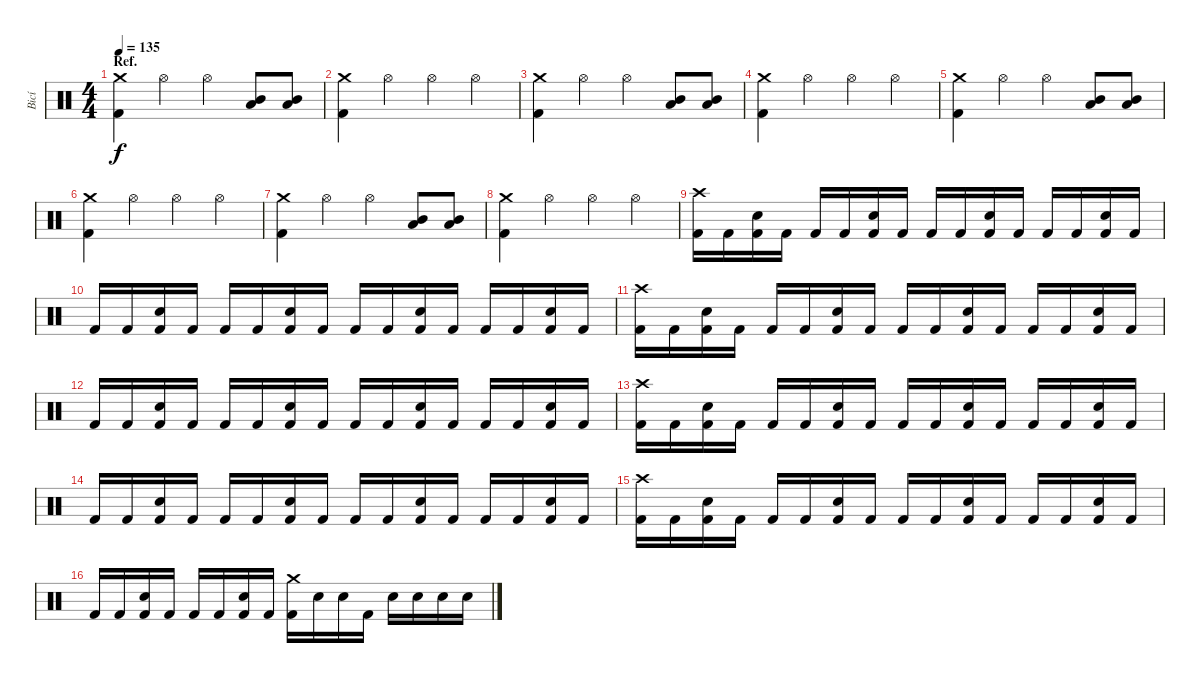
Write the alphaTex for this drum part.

\track ("Bicí" "Bicí") {instrument percussion}
\staff {score}
\articulation defaults
\ts (4 4)
\section ("" "Ref.")
\tempo 135
\clef neutral
\ks c
("Crash medium (hit)" "Kick (hit) 2").4{dy f} "Hi-Hat (open)".4 "Hi-Hat (open)".4 ("Mid Tom (hit)" "Low Tom (hit)").8 ("Mid Tom (hit)" "Low Tom (hit)").8 |
("Crash medium (hit)" "Kick (hit) 2").4 "Hi-Hat (open)".4 "Hi-Hat (open)".4 "Hi-Hat (open)".4 |
("Crash medium (hit)" "Kick (hit) 2").4 "Hi-Hat (open)".4 "Hi-Hat (open)".4 ("Mid Tom (hit)" "Low Tom (hit)").8 ("Mid Tom (hit)" "Low Tom (hit)").8 |
("Crash medium (hit)" "Kick (hit) 2").4 "Hi-Hat (open)".4 "Hi-Hat (open)".4 "Hi-Hat (open)".4 |
("Crash medium (hit)" "Kick (hit) 2").4 "Hi-Hat (open)".4 "Hi-Hat (open)".4 ("Mid Tom (hit)" "Low Tom (hit)").8 ("Mid Tom (hit)" "Low Tom (hit)").8 |
("Crash medium (hit)" "Kick (hit) 2").4 "Hi-Hat (open)".4 "Hi-Hat (open)".4 "Hi-Hat (open)".4 |
("Crash medium (hit)" "Kick (hit) 2").4 "Hi-Hat (open)".4 "Hi-Hat (open)".4 ("Mid Tom (hit)" "Low Tom (hit)").8 ("Mid Tom (hit)" "Low Tom (hit)").8 |
("Crash medium (hit)" "Kick (hit) 2").4 "Hi-Hat (open)".4 "Hi-Hat (open)".4 "Hi-Hat (open)".4 |
("Crash high (hit)" "Kick (hit) 2").16 "Kick (hit) 2".16 ("Snare (hit) 2" "Kick (hit) 2").16 "Kick (hit) 2".16 "Kick (hit) 2".16 "Kick (hit) 2".16 ("Snare (hit) 2" "Kick (hit) 2").16 "Kick (hit) 2".16 "Kick (hit) 2".16 "Kick (hit) 2".16 ("Snare (hit) 2" "Kick (hit) 2").16 "Kick (hit) 2".16 "Kick (hit) 2".16 "Kick (hit) 2".16 ("Snare (hit) 2" "Kick (hit) 2").16 "Kick (hit) 2".16 |
"Kick (hit) 2".16 "Kick (hit) 2".16 ("Snare (hit) 2" "Kick (hit) 2").16 "Kick (hit) 2".16 "Kick (hit) 2".16 "Kick (hit) 2".16 ("Snare (hit) 2" "Kick (hit) 2").16 "Kick (hit) 2".16 "Kick (hit) 2".16 "Kick (hit) 2".16 ("Snare (hit) 2" "Kick (hit) 2").16 "Kick (hit) 2".16 "Kick (hit) 2".16 "Kick (hit) 2".16 ("Snare (hit) 2" "Kick (hit) 2").16 "Kick (hit) 2".16 |
("Crash high (hit)" "Kick (hit) 2").16 "Kick (hit) 2".16 ("Snare (hit) 2" "Kick (hit) 2").16 "Kick (hit) 2".16 "Kick (hit) 2".16 "Kick (hit) 2".16 ("Snare (hit) 2" "Kick (hit) 2").16 "Kick (hit) 2".16 "Kick (hit) 2".16 "Kick (hit) 2".16 ("Snare (hit) 2" "Kick (hit) 2").16 "Kick (hit) 2".16 "Kick (hit) 2".16 "Kick (hit) 2".16 ("Snare (hit) 2" "Kick (hit) 2").16 "Kick (hit) 2".16 |
"Kick (hit) 2".16 "Kick (hit) 2".16 ("Snare (hit) 2" "Kick (hit) 2").16 "Kick (hit) 2".16 "Kick (hit) 2".16 "Kick (hit) 2".16 ("Snare (hit) 2" "Kick (hit) 2").16 "Kick (hit) 2".16 "Kick (hit) 2".16 "Kick (hit) 2".16 ("Snare (hit) 2" "Kick (hit) 2").16 "Kick (hit) 2".16 "Kick (hit) 2".16 "Kick (hit) 2".16 ("Snare (hit) 2" "Kick (hit) 2").16 "Kick (hit) 2".16 |
("Crash high (hit)" "Kick (hit) 2").16 "Kick (hit) 2".16 ("Snare (hit) 2" "Kick (hit) 2").16 "Kick (hit) 2".16 "Kick (hit) 2".16 "Kick (hit) 2".16 ("Snare (hit) 2" "Kick (hit) 2").16 "Kick (hit) 2".16 "Kick (hit) 2".16 "Kick (hit) 2".16 ("Snare (hit) 2" "Kick (hit) 2").16 "Kick (hit) 2".16 "Kick (hit) 2".16 "Kick (hit) 2".16 ("Snare (hit) 2" "Kick (hit) 2").16 "Kick (hit) 2".16 |
"Kick (hit) 2".16 "Kick (hit) 2".16 ("Snare (hit) 2" "Kick (hit) 2").16 "Kick (hit) 2".16 "Kick (hit) 2".16 "Kick (hit) 2".16 ("Snare (hit) 2" "Kick (hit) 2").16 "Kick (hit) 2".16 "Kick (hit) 2".16 "Kick (hit) 2".16 ("Snare (hit) 2" "Kick (hit) 2").16 "Kick (hit) 2".16 "Kick (hit) 2".16 "Kick (hit) 2".16 ("Snare (hit) 2" "Kick (hit) 2").16 "Kick (hit) 2".16 |
("Crash high (hit)" "Kick (hit) 2").16 "Kick (hit) 2".16 ("Snare (hit) 2" "Kick (hit) 2").16 "Kick (hit) 2".16 "Kick (hit) 2".16 "Kick (hit) 2".16 ("Snare (hit) 2" "Kick (hit) 2").16 "Kick (hit) 2".16 "Kick (hit) 2".16 "Kick (hit) 2".16 ("Snare (hit) 2" "Kick (hit) 2").16 "Kick (hit) 2".16 "Kick (hit) 2".16 "Kick (hit) 2".16 ("Snare (hit) 2" "Kick (hit) 2").16 "Kick (hit) 2".16 |
"Kick (hit) 2".16 "Kick (hit) 2".16 ("Snare (hit) 2" "Kick (hit) 2").16 "Kick (hit) 2".16 "Kick (hit) 2".16 "Kick (hit) 2".16 ("Snare (hit) 2" "Kick (hit) 2").16 "Kick (hit) 2".16 ("Crash medium (hit)" "Kick (hit) 2").16 "Snare (hit) 2".16 "Snare (hit) 2".16 "Kick (hit) 2".16 "Snare (hit) 2".16 "Snare (hit) 2".16 "Snare (hit) 2".16 "Snare (hit) 2".16
